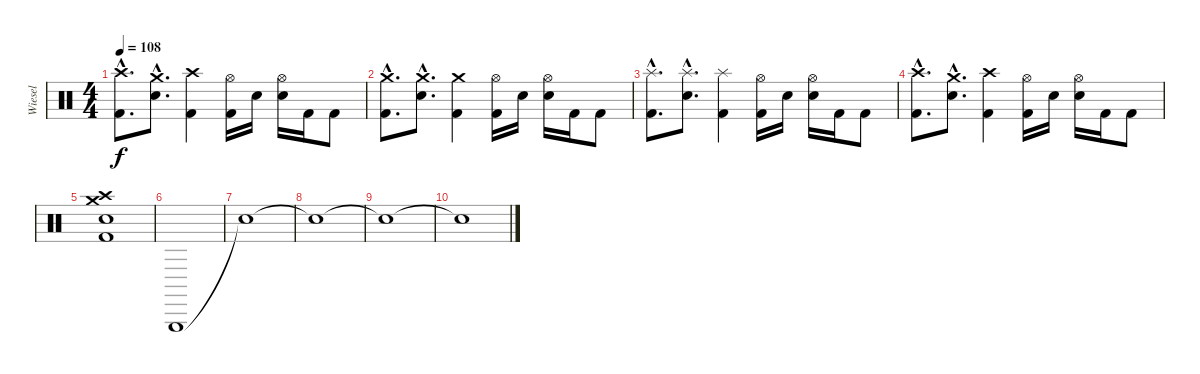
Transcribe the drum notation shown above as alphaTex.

\track ("Wiesel" "Wiesel") {instrument percussion}
\staff {score}
\articulation defaults
\ts (4 4)
\tempo 108
\clef neutral
\ks c
("Crash high (hit)"{hac} "Kick (hit) 2"{hac}).8{d dy f} ("Crash medium (hit)"{hac} "Electric Snare (hit)"{hac}).8{d} ("Crash high (hit)" "Kick (hit) 2").4 ("Hi-Hat (open)" "Kick (hit) 2").16 "Electric Snare (hit)".16 ("Hi-Hat (open)" "Electric Snare (hit)").16 "Kick (hit) 2".16 "Kick (hit) 2".8 |
("Crash medium (hit)"{hac} "Kick (hit) 2"{hac}).8{d} ("Crash medium (hit)"{hac} "Electric Snare (hit)"{hac}).8{d} ("Crash medium (hit)" "Kick (hit) 2").4 ("Hi-Hat (open)" "Kick (hit) 2").16 "Electric Snare (hit)".16 ("Hi-Hat (open)" "Electric Snare (hit)").16 "Kick (hit) 2".16 "Kick (hit) 2".8 |
("Splash (hit)"{hac} "Kick (hit) 2"{hac}).8{d} ("Splash (hit)"{hac} "Electric Snare (hit)"{hac}).8{d} ("Splash (hit)" "Kick (hit) 2").4 ("Hi-Hat (open)" "Kick (hit) 2").16 "Electric Snare (hit)".16 ("Hi-Hat (open)" "Electric Snare (hit)").16 "Kick (hit) 2".16 "Kick (hit) 2".8 |
("Crash high (hit)"{hac} "Kick (hit) 2"{hac}).8{d} ("Crash medium (hit)"{hac} "Electric Snare (hit)"{hac}).8{d} ("Crash high (hit)" "Kick (hit) 2").4 ("Hi-Hat (open)" "Kick (hit) 2").16 "Electric Snare (hit)".16 ("Hi-Hat (open)" "Electric Snare (hit)").16 "Kick (hit) 2".16 "Kick (hit) 2".8 |
("Crash medium (hit)" "Crash high (hit)" "Electric Snare (hit)" "Kick (hit) 2").1 |
"Triangle (hit)".1 |
"Snare (hit)"{t}.1 |
"Snare (hit)"{t}.1 |
"Snare (hit)"{t}.1 |
"Snare (hit)"{t}.1
